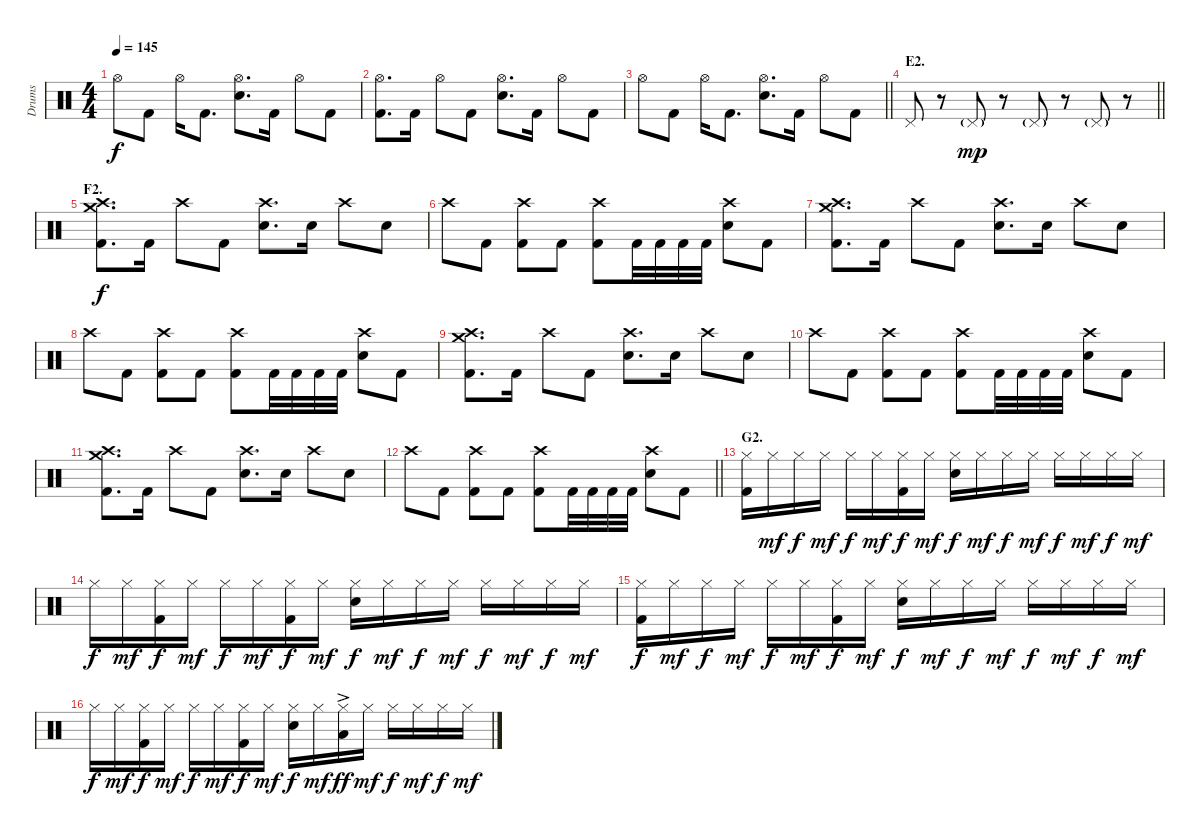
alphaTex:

\track ("Drums" "Drums") {instrument percussion}
\staff {score}
\articulation defaults
\ts (4 4)
\tempo 145
\clef neutral
\ks c "Hi-Hat (open)".8{dy f} "Kick (hit) 2".8 "Hi-Hat (open)".16 "Kick (hit) 2".8{d}
("Hi-Hat (open)" "Electric Snare (hit)").8{d} "Kick (hit) 2".16 "Hi-Hat (open)".8 "Kick (hit) 2".8 |
("Hi-Hat (open)" "Kick (hit) 2").8{d} "Kick (hit) 2".16 "Hi-Hat (open)".8 "Kick (hit) 2".8 ("Hi-Hat (open)" "Electric Snare (hit)").8{d} "Kick (hit) 2".16 "Hi-Hat (open)".8 "Kick (hit) 2".8 |
\barLineRight lightlight "Hi-Hat (open)".8 "Kick (hit) 2".8 "Hi-Hat (open)".16 "Kick (hit) 2".8{d}
("Hi-Hat (open)" "Electric Snare (hit)").8{d} "Kick (hit) 2".16 "Hi-Hat (open)".8 "Kick (hit) 2".8 |
\section ("" "E2.")
\barLineRight lightlight "Pedal Hi-Hat (hit)".8
r.8 "Pedal Hi-Hat (hit)"{g}.8{dy mp} r.8 "Pedal Hi-Hat (hit)"{g}.8 r.8 "Pedal Hi-Hat (hit)"{g}.8 r.8 |
\section ("" "F2.")
("Crash medium (hit)" "Crash high (hit)" "Kick (hit) 2").8{d dy f} "Kick (hit) 2".16 "Crash high (hit)".8 "Kick (hit) 2".8 ("Crash high (hit)" "Electric Snare (hit)").8{d} "Electric Snare (hit)".16 "Crash high (hit)".8 "Electric Snare (hit)".8 |
"Crash high (hit)".8 "Kick (hit) 2".8 ("Crash high (hit)" "Kick (hit) 2").8 "Kick (hit) 2".8 ("Crash high (hit)" "Kick (hit) 2").8 "Kick (hit) 2".32 "Kick (hit) 2".32 "Kick (hit) 2".32 "Kick (hit) 2".32 ("Crash high (hit)" "Electric Snare (hit)").8 "Kick (hit) 2".8 |
("Crash medium (hit)" "Crash high (hit)" "Kick (hit) 2").8{d} "Kick (hit) 2".16 "Crash high (hit)".8 "Kick (hit) 2".8 ("Crash high (hit)" "Electric Snare (hit)").8{d} "Electric Snare (hit)".16 "Crash high (hit)".8 "Electric Snare (hit)".8 |
"Crash high (hit)".8 "Kick (hit) 2".8 ("Crash high (hit)" "Kick (hit) 2").8 "Kick (hit) 2".8 ("Crash high (hit)" "Kick (hit) 2").8 "Kick (hit) 2".32 "Kick (hit) 2".32 "Kick (hit) 2".32 "Kick (hit) 2".32 ("Crash high (hit)" "Electric Snare (hit)").8 "Kick (hit) 2".8 |
("Crash medium (hit)" "Crash high (hit)" "Kick (hit) 2").8{d} "Kick (hit) 2".16 "Crash high (hit)".8 "Kick (hit) 2".8 ("Crash high (hit)" "Electric Snare (hit)").8{d} "Electric Snare (hit)".16 "Crash high (hit)".8 "Electric Snare (hit)".8 |
"Crash high (hit)".8 "Kick (hit) 2".8 ("Crash high (hit)" "Kick (hit) 2").8 "Kick (hit) 2".8 ("Crash high (hit)" "Kick (hit) 2").8 "Kick (hit) 2".32 "Kick (hit) 2".32 "Kick (hit) 2".32 "Kick (hit) 2".32 ("Crash high (hit)" "Electric Snare (hit)").8 "Kick (hit) 2".8 |
("Crash medium (hit)" "Crash high (hit)" "Kick (hit) 2").8{d} "Kick (hit) 2".16 "Crash high (hit)".8 "Kick (hit) 2".8 ("Crash high (hit)" "Electric Snare (hit)").8{d} "Electric Snare (hit)".16 "Crash high (hit)".8 "Electric Snare (hit)".8 |
\barLineRight lightlight "Crash high (hit)".8 "Kick (hit) 2".8
("Crash high (hit)" "Kick (hit) 2").8 "Kick (hit) 2".8 ("Crash high (hit)" "Kick (hit) 2").8 "Kick (hit) 2".32 "Kick (hit) 2".32 "Kick (hit) 2".32 "Kick (hit) 2".32 ("Crash high (hit)" "Electric Snare (hit)").8 "Kick (hit) 2".8 |
\section ("" "G2.")
("Hi-Hat (closed)" "Kick (hit) 2").16 "Hi-Hat (closed)".16{dy mf} "Hi-Hat (closed)".16{dy f} "Hi-Hat (closed)".16{dy mf} "Hi-Hat (closed)".16{dy f} "Hi-Hat (closed)".16{dy mf} ("Hi-Hat (closed)" "Kick (hit) 2").16{dy f} "Hi-Hat (closed)".16{dy mf} ("Hi-Hat (closed)" "Electric Snare (hit)").16{dy f} "Hi-Hat (closed)".16{dy mf} "Hi-Hat (closed)".16{dy f} "Hi-Hat (closed)".16{dy mf} "Hi-Hat (closed)".16{dy f} "Hi-Hat (closed)".16{dy mf} "Hi-Hat (closed)".16{dy f} "Hi-Hat (closed)".16{dy mf} |
"Hi-Hat (closed)".16{dy f} "Hi-Hat (closed)".16{dy mf} ("Hi-Hat (closed)" "Kick (hit) 2").16{dy f} "Hi-Hat (closed)".16{dy mf} "Hi-Hat (closed)".16{dy f} "Hi-Hat (closed)".16{dy mf} ("Hi-Hat (closed)" "Kick (hit) 2").16{dy f} "Hi-Hat (closed)".16{dy mf} ("Hi-Hat (closed)" "Electric Snare (hit)").16{dy f} "Hi-Hat (closed)".16{dy mf} "Hi-Hat (closed)".16{dy f} "Hi-Hat (closed)".16{dy mf} "Hi-Hat (closed)".16{dy f} "Hi-Hat (closed)".16{dy mf} "Hi-Hat (closed)".16{dy f} "Hi-Hat (closed)".16{dy mf} |
("Hi-Hat (closed)" "Kick (hit) 2").16{dy f} "Hi-Hat (closed)".16{dy mf} "Hi-Hat (closed)".16{dy f} "Hi-Hat (closed)".16{dy mf} "Hi-Hat (closed)".16{dy f} "Hi-Hat (closed)".16{dy mf} ("Hi-Hat (closed)" "Kick (hit) 2").16{dy f} "Hi-Hat (closed)".16{dy mf} ("Hi-Hat (closed)" "Electric Snare (hit)").16{dy f} "Hi-Hat (closed)".16{dy mf} "Hi-Hat (closed)".16{dy f} "Hi-Hat (closed)".16{dy mf} "Hi-Hat (closed)".16{dy f} "Hi-Hat (closed)".16{dy mf} "Hi-Hat (closed)".16{dy f} "Hi-Hat (closed)".16{dy mf} |
"Hi-Hat (closed)".16{dy f} "Hi-Hat (closed)".16{dy mf} ("Hi-Hat (closed)" "Kick (hit) 2").16{dy f} "Hi-Hat (closed)".16{dy mf} "Hi-Hat (closed)".16{dy f} "Hi-Hat (closed)".16{dy mf} ("Hi-Hat (closed)" "Kick (hit) 2").16{dy f} "Hi-Hat (closed)".16{dy mf} ("Hi-Hat (closed)" "Electric Snare (hit)").16{dy f} "Hi-Hat (closed)".16{dy mf} ("Low Tom (hit)"{ac} "Hi-Hat (closed)").16{dy ff} "Hi-Hat (closed)".16{dy mf} "Hi-Hat (closed)".16{dy f} "Hi-Hat (closed)".16{dy mf} "Hi-Hat (closed)".16{dy f} "Hi-Hat (closed)".16{dy mf}
